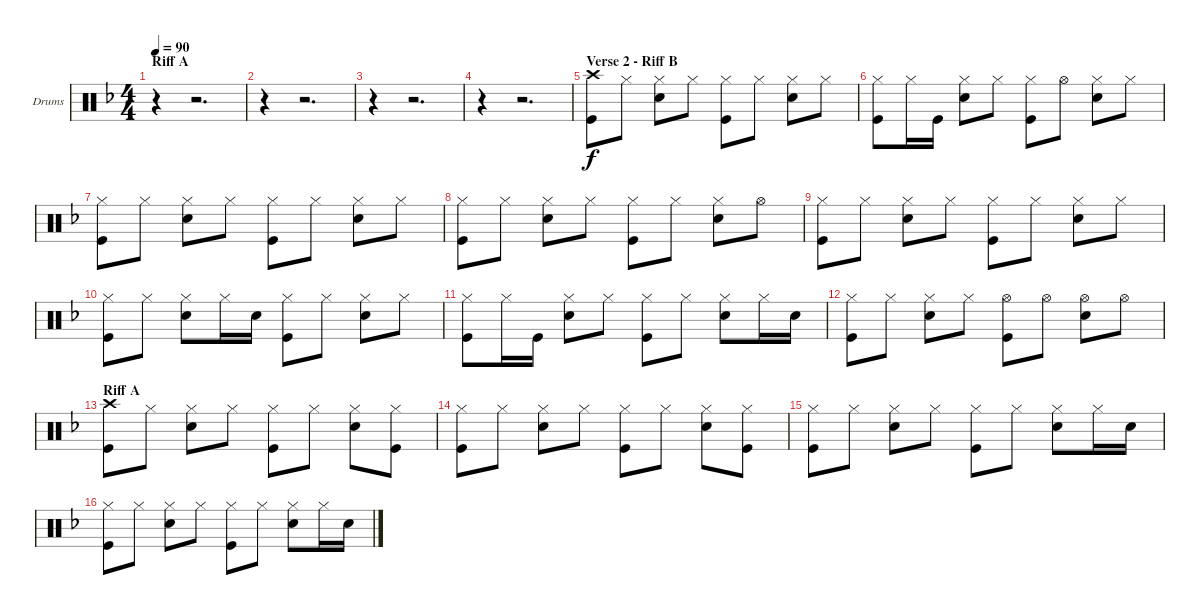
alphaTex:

\bracketExtendMode groupsimilarinstruments
\firstSystemTrackNameOrientation horizontal
\otherSystemsTrackNameOrientation horizontal
\track ("Drumkit" "Drums") {instrument percussion}
\staff {score}
\articulation defaults
\ts (4 4)
\section ("" "Riff A")
\tempo 90
\clef neutral
\ks dminor
r.4{dy f} r.2{d} |
r.4 r.2{d} |
r.4 r.2{d} |
r.4 r.2{d} |
\section ("" "Verse 2 - Riff B")
("Crash high (hit)" "Kick (hit)").8 "Hi-Hat (closed)".8 ("Hi-Hat (closed)" "Snare (hit) 2").8 "Hi-Hat (closed)".8 ("Hi-Hat (closed)" "Kick (hit)").8 "Hi-Hat (closed)".8 ("Hi-Hat (closed)" "Snare (hit) 2").8 "Hi-Hat (closed)".8 |
("Hi-Hat (closed)" "Kick (hit)").8 "Hi-Hat (closed)".16 "Kick (hit)".16 ("Hi-Hat (closed)" "Snare (hit) 2").8 "Hi-Hat (closed)".8 ("Hi-Hat (closed)" "Kick (hit)").8 "Hi-Hat (open)".8 ("Hi-Hat (closed)" "Snare (hit) 2").8 "Hi-Hat (closed)".8 |
("Hi-Hat (closed)" "Kick (hit)").8 "Hi-Hat (closed)".8 ("Hi-Hat (closed)" "Snare (hit) 2").8 "Hi-Hat (closed)".8 ("Hi-Hat (closed)" "Kick (hit)").8 "Hi-Hat (closed)".8 ("Hi-Hat (closed)" "Snare (hit) 2").8 "Hi-Hat (closed)".8 |
("Hi-Hat (closed)" "Kick (hit)").8 "Hi-Hat (closed)".8 ("Hi-Hat (closed)" "Snare (hit) 2").8 "Hi-Hat (closed)".8 ("Hi-Hat (closed)" "Kick (hit)").8 "Hi-Hat (closed)".8 ("Hi-Hat (closed)" "Snare (hit) 2").8 "Hi-Hat (open)".8 |
("Hi-Hat (closed)" "Kick (hit)").8 "Hi-Hat (closed)".8 ("Hi-Hat (closed)" "Snare (hit) 2").8 "Hi-Hat (closed)".8 ("Hi-Hat (closed)" "Kick (hit)").8 "Hi-Hat (closed)".8 ("Hi-Hat (closed)" "Snare (hit) 2").8 "Hi-Hat (closed)".8 |
("Hi-Hat (closed)" "Kick (hit)").8 "Hi-Hat (closed)".8 ("Hi-Hat (closed)" "Snare (hit) 2").8 "Hi-Hat (closed)".16 "Snare (hit) 2".16 ("Hi-Hat (closed)" "Kick (hit)").8 "Hi-Hat (closed)".8 ("Hi-Hat (closed)" "Snare (hit) 2").8 "Hi-Hat (closed)".8 |
("Hi-Hat (closed)" "Kick (hit)").8 "Hi-Hat (closed)".16 "Kick (hit)".16 ("Hi-Hat (closed)" "Snare (hit) 2").8 "Hi-Hat (closed)".8 ("Hi-Hat (closed)" "Kick (hit)").8 "Hi-Hat (closed)".8 ("Hi-Hat (closed)" "Snare (hit) 2").8 "Hi-Hat (closed)".16 "Snare (hit) 2".16 |
("Hi-Hat (closed)" "Kick (hit)").8 "Hi-Hat (closed)".8 ("Hi-Hat (closed)" "Snare (hit) 2").8 "Hi-Hat (closed)".8 ("Hi-Hat (open)" "Kick (hit)").8 "Hi-Hat (open)".8 ("Hi-Hat (open)" "Snare (hit) 2").8 "Hi-Hat (open)".8 |
\section ("" "Riff A")
("Crash high (hit)" "Kick (hit)").8 "Hi-Hat (closed)".8 ("Hi-Hat (closed)" "Snare (hit) 2").8 "Hi-Hat (closed)".8 ("Hi-Hat (closed)" "Kick (hit)").8 "Hi-Hat (closed)".8 ("Hi-Hat (closed)" "Snare (hit) 2").8 ("Hi-Hat (closed)" "Kick (hit)").8 |
("Hi-Hat (closed)" "Kick (hit)").8 "Hi-Hat (closed)".8 ("Hi-Hat (closed)" "Snare (hit) 2").8 "Hi-Hat (closed)".8 ("Hi-Hat (closed)" "Kick (hit)").8 "Hi-Hat (closed)".8 ("Hi-Hat (closed)" "Snare (hit) 2").8 ("Hi-Hat (closed)" "Kick (hit)").8 |
("Hi-Hat (closed)" "Kick (hit)").8 "Hi-Hat (closed)".8 ("Hi-Hat (closed)" "Snare (hit) 2").8 "Hi-Hat (closed)".8 ("Hi-Hat (closed)" "Kick (hit)").8 "Hi-Hat (closed)".8 ("Hi-Hat (closed)" "Snare (hit) 2").8 "Hi-Hat (closed)".16 "Snare (hit) 2".16 |
("Hi-Hat (closed)" "Kick (hit)").8 "Hi-Hat (closed)".8 ("Hi-Hat (closed)" "Snare (hit) 2").8 "Hi-Hat (closed)".8 ("Hi-Hat (closed)" "Kick (hit)").8 "Hi-Hat (closed)".8 ("Hi-Hat (closed)" "Snare (hit) 2").8 "Hi-Hat (closed)".16 "Snare (hit) 2".16
